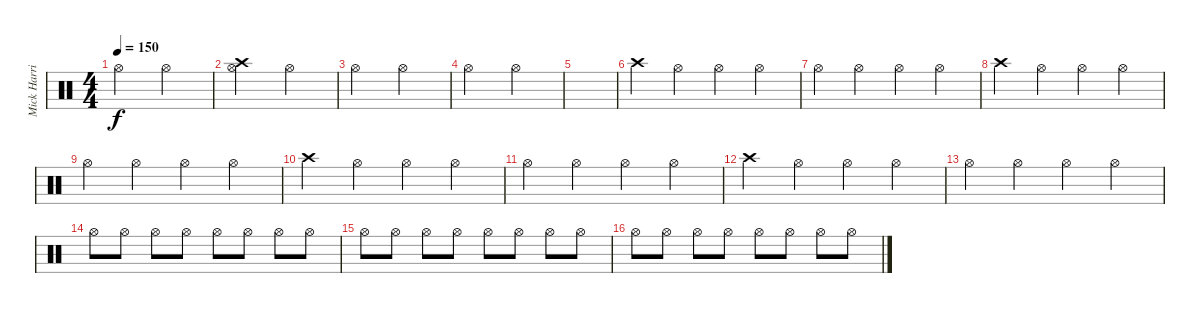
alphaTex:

\track ("Mick Harris" "Mick Harri") {instrument percussion}
\staff {score}
\articulation defaults
\ts (4 4)
\tempo 150
\clef neutral
\ks c "Hi-Hat (open)".2{dy f} "Hi-Hat (open)".2
|
("Crash high (hit)" "Hi-Hat (open)").2 "Hi-Hat (open)".2 |
"Hi-Hat (open)".2 "Hi-Hat (open)".2 |
"Hi-Hat (open)".2 "Hi-Hat (open)".2 |
|
"Crash high (hit)".4 "Hi-Hat (open)".4 "Hi-Hat (open)".4 "Hi-Hat (open)".4 |
"Hi-Hat (open)".4 "Hi-Hat (open)".4 "Hi-Hat (open)".4 "Hi-Hat (open)".4 |
"Crash high (hit)".4 "Hi-Hat (open)".4 "Hi-Hat (open)".4 "Hi-Hat (open)".4 |
"Hi-Hat (open)".4 "Hi-Hat (open)".4 "Hi-Hat (open)".4 "Hi-Hat (open)".4 |
"Crash high (hit)".4 "Hi-Hat (open)".4 "Hi-Hat (open)".4 "Hi-Hat (open)".4 |
"Hi-Hat (open)".4 "Hi-Hat (open)".4 "Hi-Hat (open)".4 "Hi-Hat (open)".4 |
"Crash high (hit)".4 "Hi-Hat (open)".4 "Hi-Hat (open)".4 "Hi-Hat (open)".4 |
"Hi-Hat (open)".4 "Hi-Hat (open)".4 "Hi-Hat (open)".4 "Hi-Hat (open)".4 |
"Hi-Hat (open)".8 "Hi-Hat (open)".8 "Hi-Hat (open)".8 "Hi-Hat (open)".8 "Hi-Hat (open)".8 "Hi-Hat (open)".8 "Hi-Hat (open)".8 "Hi-Hat (open)".8 |
"Hi-Hat (open)".8 "Hi-Hat (open)".8 "Hi-Hat (open)".8 "Hi-Hat (open)".8 "Hi-Hat (open)".8 "Hi-Hat (open)".8 "Hi-Hat (open)".8 "Hi-Hat (open)".8 |
"Hi-Hat (open)".8 "Hi-Hat (open)".8 "Hi-Hat (open)".8 "Hi-Hat (open)".8 "Hi-Hat (open)".8 "Hi-Hat (open)".8 "Hi-Hat (open)".8 "Hi-Hat (open)".8
